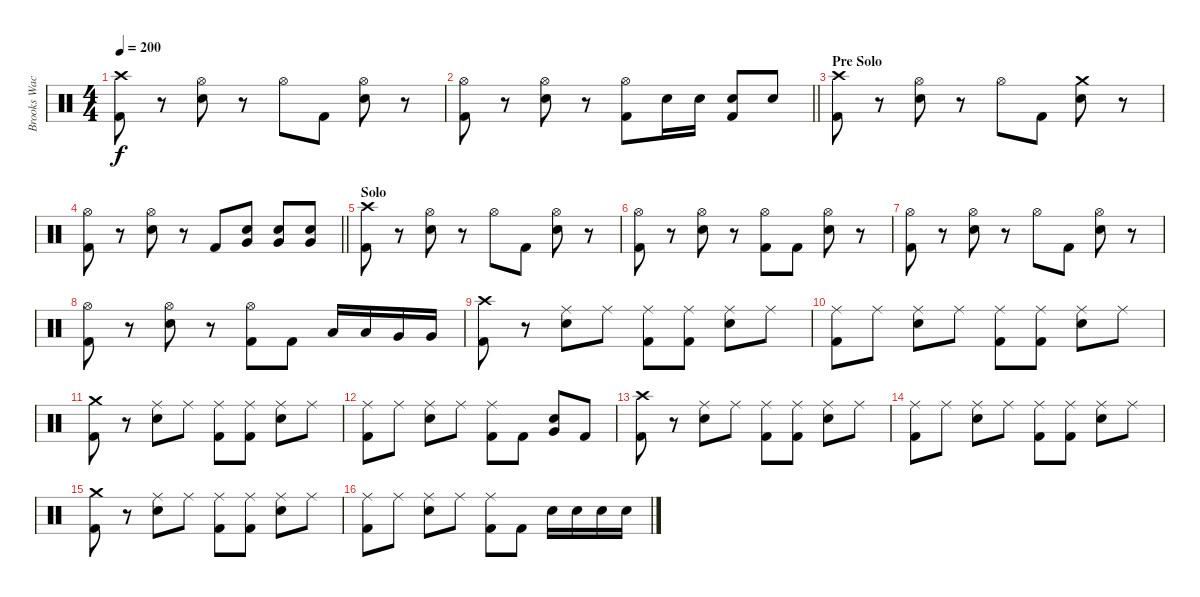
\track ("Brooks Wackerman" "Brooks Wac") {instrument percussion}
\staff {score}
\articulation defaults
\ts (4 4)
\tempo 200
\clef neutral
\ks c
("Crash high (hit)" "Kick (hit) 2").8{dy f} r.8 ("Hi-Hat (open)" "Electric Snare (hit)").8 r.8 "Hi-Hat (open)".8 "Kick (hit) 2".8 ("Hi-Hat (open)" "Electric Snare (hit)").8 r.8 |
\barLineRight lightlight
("Hi-Hat (open)" "Kick (hit) 2").8 r.8 ("Hi-Hat (open)" "Electric Snare (hit)").8 r.8 ("Hi-Hat (open)" "Kick (hit) 2").8 "Electric Snare (hit)".16 "Electric Snare (hit)".16 ("Electric Snare (hit)" "Kick (hit) 2").8 "Electric Snare (hit)".8 |
\section ("" "Pre Solo")
("Crash high (hit)" "Kick (hit) 2").8 r.8 ("Hi-Hat (open)" "Electric Snare (hit)").8 r.8 "Hi-Hat (open)".8 "Kick (hit) 2".8 ("Crash medium (hit)" "Electric Snare (hit)").8 r.8 |
\barLineRight lightlight
("Hi-Hat (open)" "Kick (hit) 2").8 r.8 ("Hi-Hat (open)" "Electric Snare (hit)").8 r.8 "Kick (hit) 2".8 ("Very Low Tom (hit)" "Electric Snare (hit)").8 ("Very Low Tom (hit)" "Electric Snare (hit)").8 ("Very Low Tom (hit)" "Electric Snare (hit)").8 |
\section ("" "Solo")
("Crash high (hit)" "Kick (hit) 2").8 r.8 ("Hi-Hat (open)" "Electric Snare (hit)").8 r.8 "Hi-Hat (open)".8 "Kick (hit) 2".8 ("Hi-Hat (open)" "Electric Snare (hit)").8 r.8 |
("Hi-Hat (open)" "Kick (hit) 2").8 r.8 ("Hi-Hat (open)" "Electric Snare (hit)").8 r.8 ("Hi-Hat (open)" "Kick (hit) 2").8 "Kick (hit) 2".8 ("Hi-Hat (open)" "Electric Snare (hit)").8 r.8 |
("Hi-Hat (open)" "Kick (hit) 2").8 r.8 ("Hi-Hat (open)" "Electric Snare (hit)").8 r.8 "Hi-Hat (open)".8 "Kick (hit) 2".8 ("Hi-Hat (open)" "Electric Snare (hit)").8 r.8 |
("Hi-Hat (open)" "Kick (hit) 2").8 r.8 ("Hi-Hat (open)" "Electric Snare (hit)").8 r.8 ("Hi-Hat (open)" "Kick (hit) 2").8 "Kick (hit) 2".8 "Low Tom (hit)".16 "Low Tom (hit)".16 "Very Low Tom (hit)".16 "Very Low Tom (hit)".16 |
("Crash high (hit)" "Kick (hit) 2").8 r.8 ("Ride (middle)" "Electric Snare (hit)").8 "Ride (middle)".8 ("Ride (middle)" "Kick (hit) 2").8 ("Ride (middle)" "Kick (hit) 2").8 ("Ride (middle)" "Electric Snare (hit)").8 "Ride (middle)".8 |
("Ride (middle)" "Kick (hit) 2").8 "Ride (middle)".8 ("Ride (middle)" "Electric Snare (hit)").8 "Ride (middle)".8 ("Ride (middle)" "Kick (hit) 2").8 ("Ride (middle)" "Kick (hit) 2").8 ("Ride (middle)" "Electric Snare (hit)").8 "Ride (middle)".8 |
("Crash medium (hit)" "Kick (hit) 2").8 r.8 ("Ride (middle)" "Electric Snare (hit)").8 "Ride (middle)".8 ("Ride (middle)" "Kick (hit) 2").8 ("Ride (middle)" "Kick (hit) 2").8 ("Ride (middle)" "Electric Snare (hit)").8 "Ride (middle)".8 |
("Ride (middle)" "Kick (hit) 2").8 "Ride (middle)".8 ("Ride (middle)" "Electric Snare (hit)").8 "Ride (middle)".8 ("Ride (middle)" "Kick (hit) 2").8 "Kick (hit) 2".8 ("Very Low Tom (hit)" "Electric Snare (hit)").8 "Kick (hit) 2".8 |
("Crash high (hit)" "Kick (hit) 2").8 r.8 ("Ride (middle)" "Electric Snare (hit)").8 "Ride (middle)".8 ("Ride (middle)" "Kick (hit) 2").8 ("Ride (middle)" "Kick (hit) 2").8 ("Ride (middle)" "Electric Snare (hit)").8 "Ride (middle)".8 |
("Ride (middle)" "Kick (hit) 2").8 "Ride (middle)".8 ("Ride (middle)" "Electric Snare (hit)").8 "Ride (middle)".8 ("Ride (middle)" "Kick (hit) 2").8 ("Ride (middle)" "Kick (hit) 2").8 ("Ride (middle)" "Electric Snare (hit)").8 "Ride (middle)".8 |
("Crash medium (hit)" "Kick (hit) 2").8 r.8 ("Ride (middle)" "Electric Snare (hit)").8 "Ride (middle)".8 ("Ride (middle)" "Kick (hit) 2").8 ("Ride (middle)" "Kick (hit) 2").8 ("Ride (middle)" "Electric Snare (hit)").8 "Ride (middle)".8 |
("Ride (middle)" "Kick (hit) 2").8 "Ride (middle)".8 ("Ride (middle)" "Electric Snare (hit)").8 "Ride (middle)".8 ("Ride (middle)" "Kick (hit) 2").8 "Kick (hit) 2".8 "Electric Snare (hit)".16 "Electric Snare (hit)".16 "Electric Snare (hit)".16 "Electric Snare (hit)".16
